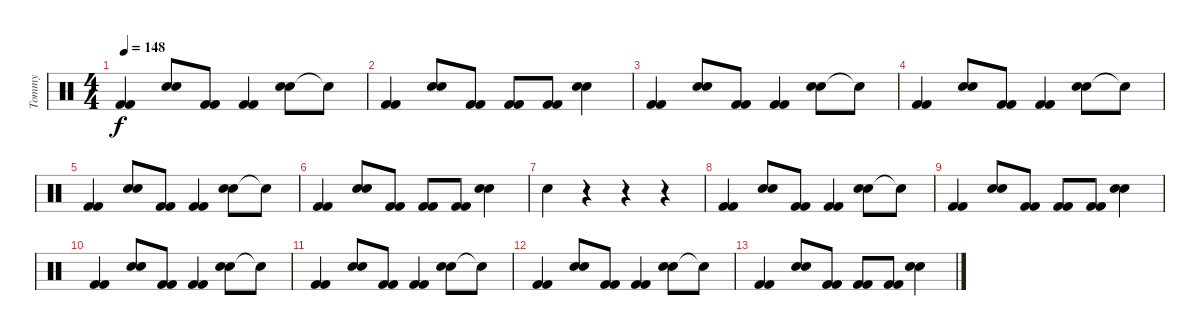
\track ("Tommy" "Tommy") {instrument percussion}
\staff {score}
\articulation defaults
\ts (4 4)
\tempo 148
\clef neutral
\ks c
("Kick (hit) 2" "Kick (hit) 2").4{dy f} ("Snare (hit) 2" "Snare (hit) 2").8 ("Kick (hit) 2" "Kick (hit) 2").8 ("Kick (hit) 2" "Kick (hit) 2").4 ("Snare (hit) 2" "Snare (hit) 2").8 "Snare (hit)"{t}.8 |
("Kick (hit) 2" "Kick (hit) 2").4 ("Snare (hit) 2" "Snare (hit) 2").8 ("Kick (hit) 2" "Kick (hit) 2").8 ("Kick (hit) 2" "Kick (hit) 2").8 ("Kick (hit) 2" "Kick (hit) 2").8 ("Snare (hit) 2" "Snare (hit) 2").4 |
("Kick (hit) 2" "Kick (hit) 2").4 ("Snare (hit) 2" "Snare (hit) 2").8 ("Kick (hit) 2" "Kick (hit) 2").8 ("Kick (hit) 2" "Kick (hit) 2").4 ("Snare (hit) 2" "Snare (hit) 2").8 "Snare (hit)"{t}.8 |
("Kick (hit) 2" "Kick (hit) 2").4 ("Snare (hit) 2" "Snare (hit) 2").8 ("Kick (hit) 2" "Kick (hit) 2").8 ("Kick (hit) 2" "Kick (hit) 2").4 ("Snare (hit) 2" "Snare (hit) 2").8 "Snare (hit)"{t}.8 |
("Kick (hit) 2" "Kick (hit) 2").4 ("Snare (hit) 2" "Snare (hit) 2").8 ("Kick (hit) 2" "Kick (hit) 2").8 ("Kick (hit) 2" "Kick (hit) 2").4 ("Snare (hit) 2" "Snare (hit) 2").8 "Snare (hit)"{t}.8 |
("Kick (hit) 2" "Kick (hit) 2").4 ("Snare (hit) 2" "Snare (hit) 2").8 ("Kick (hit) 2" "Kick (hit) 2").8 ("Kick (hit) 2" "Kick (hit) 2").8 ("Kick (hit) 2" "Kick (hit) 2").8 ("Snare (hit) 2" "Snare (hit) 2").4 |
"Snare (hit) 2".4 r.4 r.4 r.4 |
("Kick (hit) 2" "Kick (hit) 2").4 ("Snare (hit) 2" "Snare (hit) 2").8 ("Kick (hit) 2" "Kick (hit) 2").8 ("Kick (hit) 2" "Kick (hit) 2").4 ("Snare (hit) 2" "Snare (hit) 2").8 "Snare (hit)"{t}.8 |
("Kick (hit) 2" "Kick (hit) 2").4 ("Snare (hit) 2" "Snare (hit) 2").8 ("Kick (hit) 2" "Kick (hit) 2").8 ("Kick (hit) 2" "Kick (hit) 2").8 ("Kick (hit) 2" "Kick (hit) 2").8 ("Snare (hit) 2" "Snare (hit) 2").4 |
("Kick (hit) 2" "Kick (hit) 2").4 ("Snare (hit) 2" "Snare (hit) 2").8 ("Kick (hit) 2" "Kick (hit) 2").8 ("Kick (hit) 2" "Kick (hit) 2").4 ("Snare (hit) 2" "Snare (hit) 2").8 "Snare (hit)"{t}.8 |
("Kick (hit) 2" "Kick (hit) 2").4 ("Snare (hit) 2" "Snare (hit) 2").8 ("Kick (hit) 2" "Kick (hit) 2").8 ("Kick (hit) 2" "Kick (hit) 2").4 ("Snare (hit) 2" "Snare (hit) 2").8 "Snare (hit)"{t}.8 |
("Kick (hit) 2" "Kick (hit) 2").4 ("Snare (hit) 2" "Snare (hit) 2").8 ("Kick (hit) 2" "Kick (hit) 2").8 ("Kick (hit) 2" "Kick (hit) 2").4 ("Snare (hit) 2" "Snare (hit) 2").8 "Snare (hit)"{t}.8 |
("Kick (hit) 2" "Kick (hit) 2").4 ("Snare (hit) 2" "Snare (hit) 2").8 ("Kick (hit) 2" "Kick (hit) 2").8 ("Kick (hit) 2" "Kick (hit) 2").8 ("Kick (hit) 2" "Kick (hit) 2").8 ("Snare (hit) 2" "Snare (hit) 2").4
